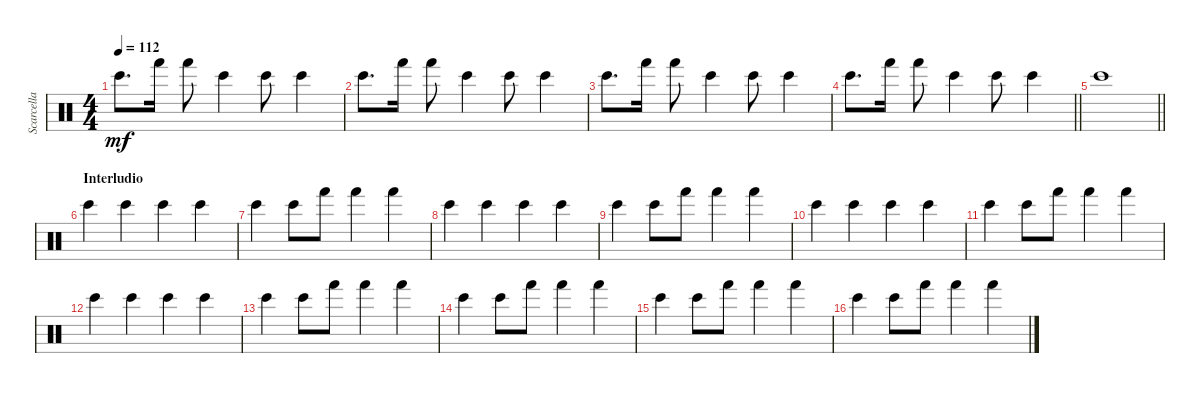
\track ("Scarcella" "Scarcella") {instrument percussion}
\staff {score}
\articulation defaults
\ts (4 4)
\tempo 112
\clef neutral
\ks c "Bongo High (hit)".8{d dy mf} "Hand (hit)".16 "Hand (hit)".8 "Bongo High (hit)".4 "Bongo High (hit)".8 "Bongo High (hit)".4
|
"Bongo High (hit)".8{d} "Hand (hit)".16 "Hand (hit)".8 "Bongo High (hit)".4 "Bongo High (hit)".8 "Bongo High (hit)".4 |
"Bongo High (hit)".8{d} "Hand (hit)".16 "Hand (hit)".8 "Bongo High (hit)".4 "Bongo High (hit)".8 "Bongo High (hit)".4 |
\barLineRight lightlight "Bongo High (hit)".8{d} "Hand (hit)".16 "Hand (hit)".8 "Bongo High (hit)".4 "Bongo High (hit)".8 "Bongo High (hit)".4
|
\barLineRight lightlight "Bongo High (hit)".1
|
\section ("" "Interludio")
"Bongo High (hit)".4 "Bongo High (hit)".4 "Bongo High (hit)".4 "Bongo High (hit)".4 |
"Bongo High (hit)".4 "Bongo High (hit)".8 "Hand (hit)".8 "Hand (hit)".4 "Hand (hit)".4 |
"Bongo High (hit)".4 "Bongo High (hit)".4 "Bongo High (hit)".4 "Bongo High (hit)".4 |
"Bongo High (hit)".4 "Bongo High (hit)".8 "Hand (hit)".8 "Hand (hit)".4 "Hand (hit)".4 |
"Bongo High (hit)".4 "Bongo High (hit)".4 "Bongo High (hit)".4 "Bongo High (hit)".4 |
"Bongo High (hit)".4 "Bongo High (hit)".8 "Hand (hit)".8 "Hand (hit)".4 "Hand (hit)".4 |
"Bongo High (hit)".4 "Bongo High (hit)".4 "Bongo High (hit)".4 "Bongo High (hit)".4 |
"Bongo High (hit)".4 "Bongo High (hit)".8 "Hand (hit)".8 "Hand (hit)".4 "Hand (hit)".4 |
"Bongo High (hit)".4 "Bongo High (hit)".8 "Hand (hit)".8 "Hand (hit)".4 "Hand (hit)".4 |
"Bongo High (hit)".4 "Bongo High (hit)".8 "Hand (hit)".8 "Hand (hit)".4 "Hand (hit)".4 |
"Bongo High (hit)".4 "Bongo High (hit)".8 "Hand (hit)".8 "Hand (hit)".4 "Hand (hit)".4
